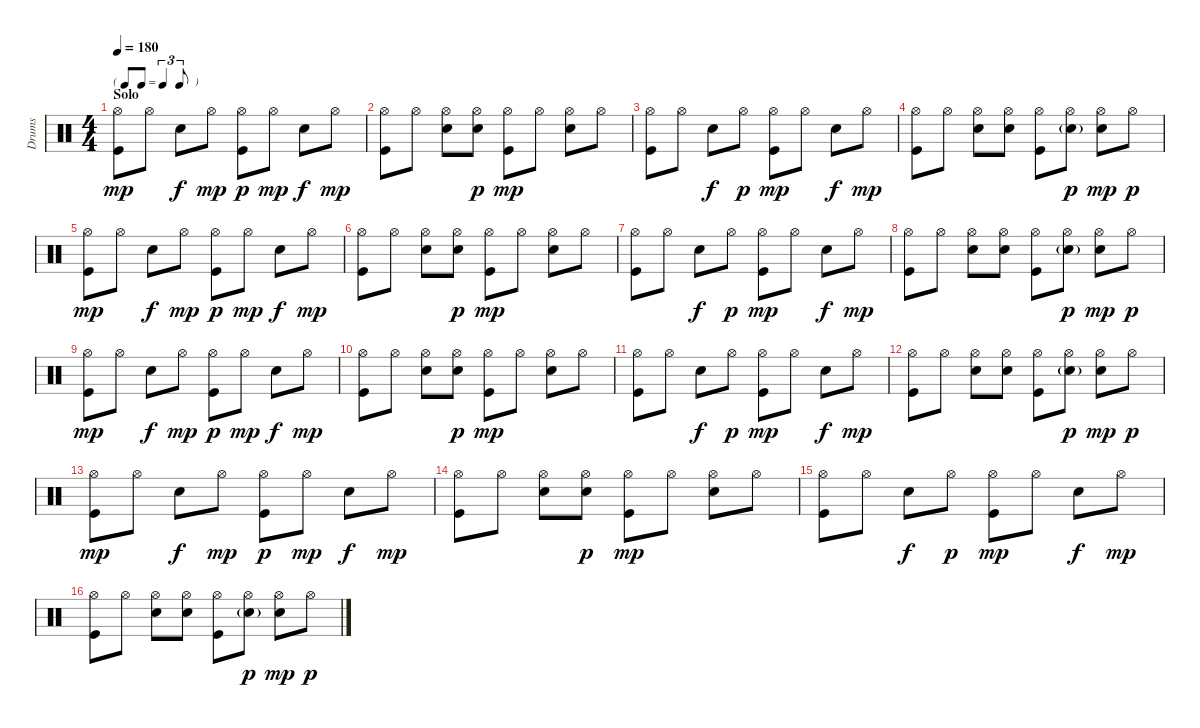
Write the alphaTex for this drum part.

\track ("Drums" "Drums") {instrument percussion}
\staff {score}
\articulation defaults
\ts (4 4)
\tf triplet8th
\section ("" "Solo")
\tempo 180
\clef neutral
\ks c
("Hi-Hat (open)" "Kick (hit)").8{dy mp} "Hi-Hat (open)".8 "Electric Snare (hit)".8{dy f} "Hi-Hat (open)".8{dy mp} ("Hi-Hat (open)" "Kick (hit)").8{dy p} "Hi-Hat (open)".8{dy mp} "Electric Snare (hit)".8{dy f} "Hi-Hat (open)".8{dy mp} |
("Hi-Hat (open)" "Kick (hit)").8 "Hi-Hat (open)".8 ("Hi-Hat (open)" "Electric Snare (hit)").8 ("Electric Snare (hit)" "Hi-Hat (open)").8{dy p} ("Hi-Hat (open)" "Kick (hit)").8{dy mp} "Hi-Hat (open)".8 ("Hi-Hat (open)" "Electric Snare (hit)").8 "Hi-Hat (open)".8 |
("Hi-Hat (open)" "Kick (hit)").8 "Hi-Hat (open)".8 "Electric Snare (hit)".8{dy f} "Hi-Hat (open)".8{dy p} ("Hi-Hat (open)" "Kick (hit)").8{dy mp} "Hi-Hat (open)".8 "Electric Snare (hit)".8{dy f} "Hi-Hat (open)".8{dy mp} |
("Hi-Hat (open)" "Kick (hit)").8 "Hi-Hat (open)".8 ("Hi-Hat (open)" "Electric Snare (hit)").8 ("Electric Snare (hit)" "Hi-Hat (open)").8 ("Hi-Hat (open)" "Kick (hit)").8 ("Electric Snare (hit)"{g} "Hi-Hat (open)").8{dy p} ("Hi-Hat (open)" "Electric Snare (hit)").8{dy mp} "Hi-Hat (open)".8{dy p} |
("Hi-Hat (open)" "Kick (hit)").8{dy mp} "Hi-Hat (open)".8 "Electric Snare (hit)".8{dy f} "Hi-Hat (open)".8{dy mp} ("Hi-Hat (open)" "Kick (hit)").8{dy p} "Hi-Hat (open)".8{dy mp} "Electric Snare (hit)".8{dy f} "Hi-Hat (open)".8{dy mp} |
("Hi-Hat (open)" "Kick (hit)").8 "Hi-Hat (open)".8 ("Hi-Hat (open)" "Electric Snare (hit)").8 ("Electric Snare (hit)" "Hi-Hat (open)").8{dy p} ("Hi-Hat (open)" "Kick (hit)").8{dy mp} "Hi-Hat (open)".8 ("Hi-Hat (open)" "Electric Snare (hit)").8 "Hi-Hat (open)".8 |
("Hi-Hat (open)" "Kick (hit)").8 "Hi-Hat (open)".8 "Electric Snare (hit)".8{dy f} "Hi-Hat (open)".8{dy p} ("Hi-Hat (open)" "Kick (hit)").8{dy mp} "Hi-Hat (open)".8 "Electric Snare (hit)".8{dy f} "Hi-Hat (open)".8{dy mp} |
("Hi-Hat (open)" "Kick (hit)").8 "Hi-Hat (open)".8 ("Hi-Hat (open)" "Electric Snare (hit)").8 ("Electric Snare (hit)" "Hi-Hat (open)").8 ("Hi-Hat (open)" "Kick (hit)").8 ("Electric Snare (hit)"{g} "Hi-Hat (open)").8{dy p} ("Hi-Hat (open)" "Electric Snare (hit)").8{dy mp} "Hi-Hat (open)".8{dy p} |
("Hi-Hat (open)" "Kick (hit)").8{dy mp} "Hi-Hat (open)".8 "Electric Snare (hit)".8{dy f} "Hi-Hat (open)".8{dy mp} ("Hi-Hat (open)" "Kick (hit)").8{dy p} "Hi-Hat (open)".8{dy mp} "Electric Snare (hit)".8{dy f} "Hi-Hat (open)".8{dy mp} |
("Hi-Hat (open)" "Kick (hit)").8 "Hi-Hat (open)".8 ("Hi-Hat (open)" "Electric Snare (hit)").8 ("Electric Snare (hit)" "Hi-Hat (open)").8{dy p} ("Hi-Hat (open)" "Kick (hit)").8{dy mp} "Hi-Hat (open)".8 ("Hi-Hat (open)" "Electric Snare (hit)").8 "Hi-Hat (open)".8 |
("Hi-Hat (open)" "Kick (hit)").8 "Hi-Hat (open)".8 "Electric Snare (hit)".8{dy f} "Hi-Hat (open)".8{dy p} ("Hi-Hat (open)" "Kick (hit)").8{dy mp} "Hi-Hat (open)".8 "Electric Snare (hit)".8{dy f} "Hi-Hat (open)".8{dy mp} |
("Hi-Hat (open)" "Kick (hit)").8 "Hi-Hat (open)".8 ("Hi-Hat (open)" "Electric Snare (hit)").8 ("Electric Snare (hit)" "Hi-Hat (open)").8 ("Hi-Hat (open)" "Kick (hit)").8 ("Electric Snare (hit)"{g} "Hi-Hat (open)").8{dy p} ("Hi-Hat (open)" "Electric Snare (hit)").8{dy mp} "Hi-Hat (open)".8{dy p} |
("Hi-Hat (open)" "Kick (hit)").8{dy mp} "Hi-Hat (open)".8 "Electric Snare (hit)".8{dy f} "Hi-Hat (open)".8{dy mp} ("Hi-Hat (open)" "Kick (hit)").8{dy p} "Hi-Hat (open)".8{dy mp} "Electric Snare (hit)".8{dy f} "Hi-Hat (open)".8{dy mp} |
("Hi-Hat (open)" "Kick (hit)").8 "Hi-Hat (open)".8 ("Hi-Hat (open)" "Electric Snare (hit)").8 ("Electric Snare (hit)" "Hi-Hat (open)").8{dy p} ("Hi-Hat (open)" "Kick (hit)").8{dy mp} "Hi-Hat (open)".8 ("Hi-Hat (open)" "Electric Snare (hit)").8 "Hi-Hat (open)".8 |
("Hi-Hat (open)" "Kick (hit)").8 "Hi-Hat (open)".8 "Electric Snare (hit)".8{dy f} "Hi-Hat (open)".8{dy p} ("Hi-Hat (open)" "Kick (hit)").8{dy mp} "Hi-Hat (open)".8 "Electric Snare (hit)".8{dy f} "Hi-Hat (open)".8{dy mp} |
("Hi-Hat (open)" "Kick (hit)").8 "Hi-Hat (open)".8 ("Hi-Hat (open)" "Electric Snare (hit)").8 ("Electric Snare (hit)" "Hi-Hat (open)").8 ("Hi-Hat (open)" "Kick (hit)").8 ("Electric Snare (hit)"{g} "Hi-Hat (open)").8{dy p} ("Hi-Hat (open)" "Electric Snare (hit)").8{dy mp} "Hi-Hat (open)".8{dy p}
